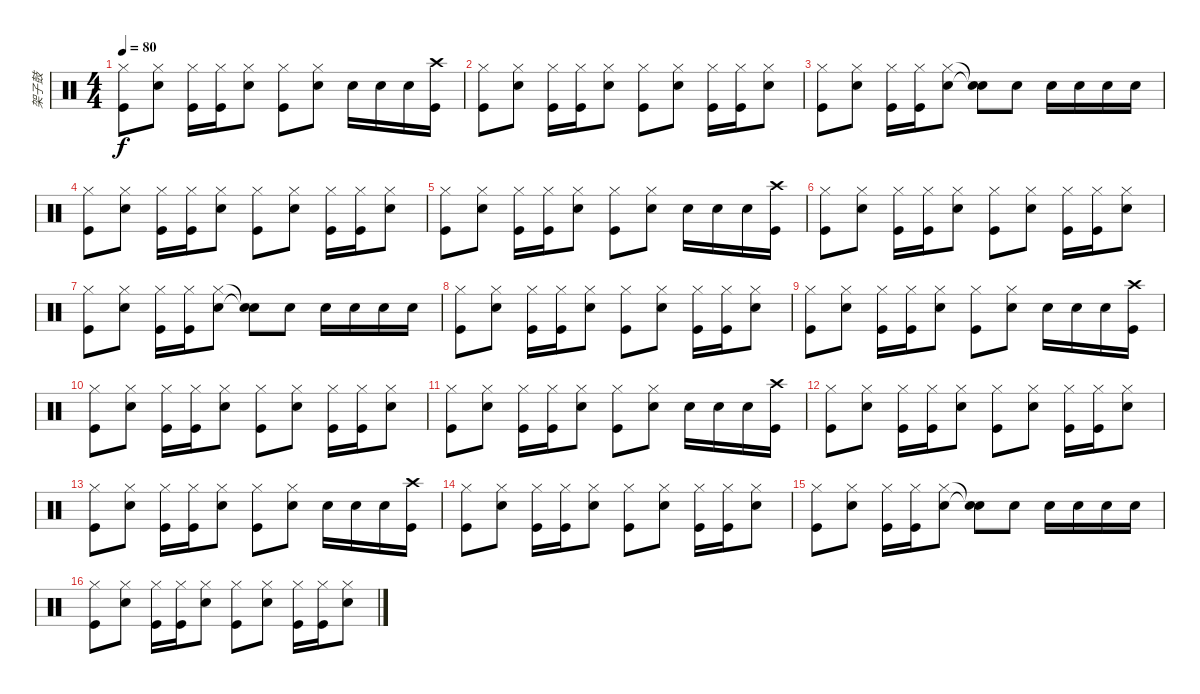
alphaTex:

\track ("架子鼓" "架子鼓") {instrument percussion}
\staff {score}
\articulation defaults
\ts (4 4)
\tempo 80
\clef neutral
\ks c
("Hi-Hat (closed)" "Kick (hit)").8{dy f} ("Hi-Hat (closed)" "Electric Snare (hit)").8 ("Hi-Hat (closed)" "Kick (hit)").16 ("Hi-Hat (closed)" "Kick (hit)").16 ("Hi-Hat (closed)" "Electric Snare (hit)").8 ("Hi-Hat (closed)" "Kick (hit)").8 ("Hi-Hat (closed)" "Electric Snare (hit)").8 "Electric Snare (hit)".16 "Electric Snare (hit)".16 "Electric Snare (hit)".16 ("Crash high (hit)" "Kick (hit)").16 |
("Hi-Hat (closed)" "Kick (hit)").8 ("Hi-Hat (closed)" "Electric Snare (hit)").8 ("Hi-Hat (closed)" "Kick (hit)").16 ("Hi-Hat (closed)" "Kick (hit)").16 ("Hi-Hat (closed)" "Electric Snare (hit)").8 ("Hi-Hat (closed)" "Kick (hit)").8 ("Hi-Hat (closed)" "Electric Snare (hit)").8 ("Hi-Hat (closed)" "Kick (hit)").16 ("Hi-Hat (closed)" "Kick (hit)").16 ("Hi-Hat (closed)" "Electric Snare (hit)").8 |
("Hi-Hat (closed)" "Kick (hit)").8 ("Hi-Hat (closed)" "Electric Snare (hit)").8 ("Hi-Hat (closed)" "Kick (hit)").16 ("Hi-Hat (closed)" "Kick (hit)").16 ("Hi-Hat (closed)" "Electric Snare (hit)").8 ("Snare (hit)"{t} "Snare (hit)"{t}).8 "Electric Snare (hit)".8 "Electric Snare (hit)".16 "Electric Snare (hit)".16 "Electric Snare (hit)".16 "Electric Snare (hit)".16 |
("Hi-Hat (closed)" "Kick (hit)").8 ("Hi-Hat (closed)" "Electric Snare (hit)").8 ("Hi-Hat (closed)" "Kick (hit)").16 ("Hi-Hat (closed)" "Kick (hit)").16 ("Hi-Hat (closed)" "Electric Snare (hit)").8 ("Hi-Hat (closed)" "Kick (hit)").8 ("Hi-Hat (closed)" "Electric Snare (hit)").8 ("Hi-Hat (closed)" "Kick (hit)").16 ("Hi-Hat (closed)" "Kick (hit)").16 ("Hi-Hat (closed)" "Electric Snare (hit)").8 |
("Hi-Hat (closed)" "Kick (hit)").8 ("Hi-Hat (closed)" "Electric Snare (hit)").8 ("Hi-Hat (closed)" "Kick (hit)").16 ("Hi-Hat (closed)" "Kick (hit)").16 ("Hi-Hat (closed)" "Electric Snare (hit)").8 ("Hi-Hat (closed)" "Kick (hit)").8 ("Hi-Hat (closed)" "Electric Snare (hit)").8 "Electric Snare (hit)".16 "Electric Snare (hit)".16 "Electric Snare (hit)".16 ("Crash high (hit)" "Kick (hit)").16 |
("Hi-Hat (closed)" "Kick (hit)").8 ("Hi-Hat (closed)" "Electric Snare (hit)").8 ("Hi-Hat (closed)" "Kick (hit)").16 ("Hi-Hat (closed)" "Kick (hit)").16 ("Hi-Hat (closed)" "Electric Snare (hit)").8 ("Hi-Hat (closed)" "Kick (hit)").8 ("Hi-Hat (closed)" "Electric Snare (hit)").8 ("Hi-Hat (closed)" "Kick (hit)").16 ("Hi-Hat (closed)" "Kick (hit)").16 ("Hi-Hat (closed)" "Electric Snare (hit)").8 |
("Hi-Hat (closed)" "Kick (hit)").8 ("Hi-Hat (closed)" "Electric Snare (hit)").8 ("Hi-Hat (closed)" "Kick (hit)").16 ("Hi-Hat (closed)" "Kick (hit)").16 ("Hi-Hat (closed)" "Electric Snare (hit)").8 ("Snare (hit)"{t} "Snare (hit)"{t}).8 "Electric Snare (hit)".8 "Electric Snare (hit)".16 "Electric Snare (hit)".16 "Electric Snare (hit)".16 "Electric Snare (hit)".16 |
("Hi-Hat (closed)" "Kick (hit)").8 ("Hi-Hat (closed)" "Electric Snare (hit)").8 ("Hi-Hat (closed)" "Kick (hit)").16 ("Hi-Hat (closed)" "Kick (hit)").16 ("Hi-Hat (closed)" "Electric Snare (hit)").8 ("Hi-Hat (closed)" "Kick (hit)").8 ("Hi-Hat (closed)" "Electric Snare (hit)").8 ("Hi-Hat (closed)" "Kick (hit)").16 ("Hi-Hat (closed)" "Kick (hit)").16 ("Hi-Hat (closed)" "Electric Snare (hit)").8 |
("Hi-Hat (closed)" "Kick (hit)").8 ("Hi-Hat (closed)" "Electric Snare (hit)").8 ("Hi-Hat (closed)" "Kick (hit)").16 ("Hi-Hat (closed)" "Kick (hit)").16 ("Hi-Hat (closed)" "Electric Snare (hit)").8 ("Hi-Hat (closed)" "Kick (hit)").8 ("Hi-Hat (closed)" "Electric Snare (hit)").8 "Electric Snare (hit)".16 "Electric Snare (hit)".16 "Electric Snare (hit)".16 ("Crash high (hit)" "Kick (hit)").16 |
("Hi-Hat (closed)" "Kick (hit)").8 ("Hi-Hat (closed)" "Electric Snare (hit)").8 ("Hi-Hat (closed)" "Kick (hit)").16 ("Hi-Hat (closed)" "Kick (hit)").16 ("Hi-Hat (closed)" "Electric Snare (hit)").8 ("Hi-Hat (closed)" "Kick (hit)").8 ("Hi-Hat (closed)" "Electric Snare (hit)").8 ("Hi-Hat (closed)" "Kick (hit)").16 ("Hi-Hat (closed)" "Kick (hit)").16 ("Hi-Hat (closed)" "Electric Snare (hit)").8 |
("Hi-Hat (closed)" "Kick (hit)").8 ("Hi-Hat (closed)" "Electric Snare (hit)").8 ("Hi-Hat (closed)" "Kick (hit)").16 ("Hi-Hat (closed)" "Kick (hit)").16 ("Hi-Hat (closed)" "Electric Snare (hit)").8 ("Hi-Hat (closed)" "Kick (hit)").8 ("Hi-Hat (closed)" "Electric Snare (hit)").8 "Electric Snare (hit)".16 "Electric Snare (hit)".16 "Electric Snare (hit)".16 ("Crash high (hit)" "Kick (hit)").16 |
("Hi-Hat (closed)" "Kick (hit)").8 ("Hi-Hat (closed)" "Electric Snare (hit)").8 ("Hi-Hat (closed)" "Kick (hit)").16 ("Hi-Hat (closed)" "Kick (hit)").16 ("Hi-Hat (closed)" "Electric Snare (hit)").8 ("Hi-Hat (closed)" "Kick (hit)").8 ("Hi-Hat (closed)" "Electric Snare (hit)").8 ("Hi-Hat (closed)" "Kick (hit)").16 ("Hi-Hat (closed)" "Kick (hit)").16 ("Hi-Hat (closed)" "Electric Snare (hit)").8 |
("Hi-Hat (closed)" "Kick (hit)").8 ("Hi-Hat (closed)" "Electric Snare (hit)").8 ("Hi-Hat (closed)" "Kick (hit)").16 ("Hi-Hat (closed)" "Kick (hit)").16 ("Hi-Hat (closed)" "Electric Snare (hit)").8 ("Hi-Hat (closed)" "Kick (hit)").8 ("Hi-Hat (closed)" "Electric Snare (hit)").8 "Electric Snare (hit)".16 "Electric Snare (hit)".16 "Electric Snare (hit)".16 ("Crash high (hit)" "Kick (hit)").16 |
("Hi-Hat (closed)" "Kick (hit)").8 ("Hi-Hat (closed)" "Electric Snare (hit)").8 ("Hi-Hat (closed)" "Kick (hit)").16 ("Hi-Hat (closed)" "Kick (hit)").16 ("Hi-Hat (closed)" "Electric Snare (hit)").8 ("Hi-Hat (closed)" "Kick (hit)").8 ("Hi-Hat (closed)" "Electric Snare (hit)").8 ("Hi-Hat (closed)" "Kick (hit)").16 ("Hi-Hat (closed)" "Kick (hit)").16 ("Hi-Hat (closed)" "Electric Snare (hit)").8 |
("Hi-Hat (closed)" "Kick (hit)").8 ("Hi-Hat (closed)" "Electric Snare (hit)").8 ("Hi-Hat (closed)" "Kick (hit)").16 ("Hi-Hat (closed)" "Kick (hit)").16 ("Hi-Hat (closed)" "Electric Snare (hit)").8 ("Snare (hit)"{t} "Snare (hit)"{t}).8 "Electric Snare (hit)".8 "Electric Snare (hit)".16 "Electric Snare (hit)".16 "Electric Snare (hit)".16 "Electric Snare (hit)".16 |
("Hi-Hat (closed)" "Kick (hit)").8 ("Hi-Hat (closed)" "Electric Snare (hit)").8 ("Hi-Hat (closed)" "Kick (hit)").16 ("Hi-Hat (closed)" "Kick (hit)").16 ("Hi-Hat (closed)" "Electric Snare (hit)").8 ("Hi-Hat (closed)" "Kick (hit)").8 ("Hi-Hat (closed)" "Electric Snare (hit)").8 ("Hi-Hat (closed)" "Kick (hit)").16 ("Hi-Hat (closed)" "Kick (hit)").16 ("Hi-Hat (closed)" "Electric Snare (hit)").8
